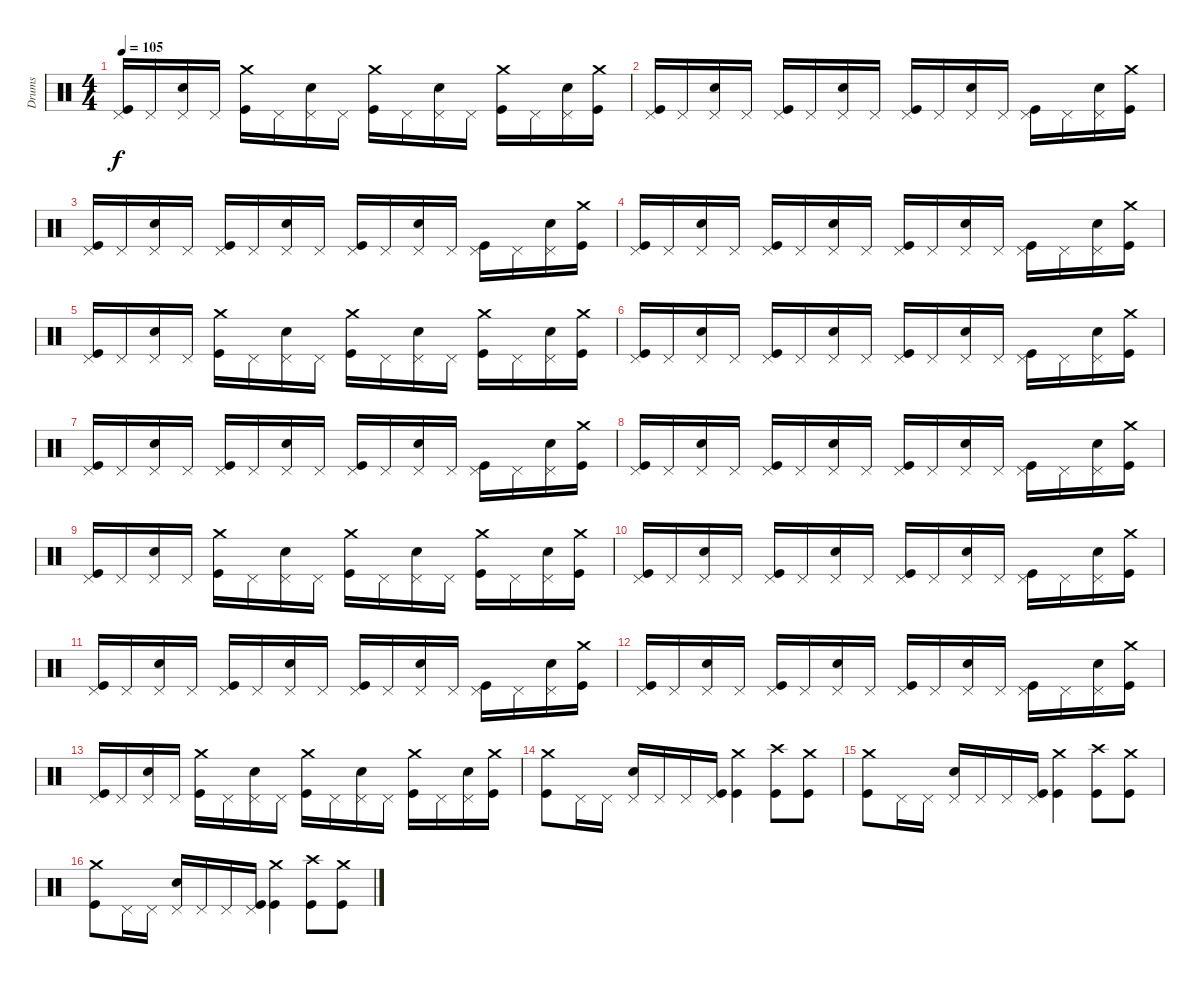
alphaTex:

\track ("Drums" "Drums") {instrument percussion}
\staff {score}
\articulation defaults
\ts (4 4)
\tempo 105
\clef neutral
\ks c
("Kick (hit)" "Pedal Hi-Hat (hit)").16{dy f} "Pedal Hi-Hat (hit)".16 ("Snare (hit) 2" "Pedal Hi-Hat (hit)").16 "Pedal Hi-Hat (hit)".16 ("Kick (hit)" "Crash medium (hit)").16 "Pedal Hi-Hat (hit)".16 ("Snare (hit) 2" "Pedal Hi-Hat (hit)").16 "Pedal Hi-Hat (hit)".16 ("Kick (hit)" "Crash medium (hit)").16 "Pedal Hi-Hat (hit)".16 ("Snare (hit) 2" "Pedal Hi-Hat (hit)").16 "Pedal Hi-Hat (hit)".16 ("Kick (hit)" "Crash medium (hit)").16 "Pedal Hi-Hat (hit)".16 ("Snare (hit) 2" "Pedal Hi-Hat (hit)").16 ("Kick (hit)" "Crash medium (hit)").16 |
("Kick (hit)" "Pedal Hi-Hat (hit)").16 "Pedal Hi-Hat (hit)".16 ("Snare (hit) 2" "Pedal Hi-Hat (hit)").16 "Pedal Hi-Hat (hit)".16 ("Kick (hit)" "Pedal Hi-Hat (hit)").16 "Pedal Hi-Hat (hit)".16 ("Snare (hit) 2" "Pedal Hi-Hat (hit)").16 "Pedal Hi-Hat (hit)".16 ("Kick (hit)" "Pedal Hi-Hat (hit)").16 "Pedal Hi-Hat (hit)".16 ("Snare (hit) 2" "Pedal Hi-Hat (hit)").16 "Pedal Hi-Hat (hit)".16 ("Kick (hit)" "Pedal Hi-Hat (hit)").16 "Pedal Hi-Hat (hit)".16 ("Snare (hit) 2" "Pedal Hi-Hat (hit)").16 ("Kick (hit)" "Crash medium (hit)").16 |
("Kick (hit)" "Pedal Hi-Hat (hit)").16 "Pedal Hi-Hat (hit)".16 ("Snare (hit) 2" "Pedal Hi-Hat (hit)").16 "Pedal Hi-Hat (hit)".16 ("Kick (hit)" "Pedal Hi-Hat (hit)").16 "Pedal Hi-Hat (hit)".16 ("Snare (hit) 2" "Pedal Hi-Hat (hit)").16 "Pedal Hi-Hat (hit)".16 ("Kick (hit)" "Pedal Hi-Hat (hit)").16 "Pedal Hi-Hat (hit)".16 ("Snare (hit) 2" "Pedal Hi-Hat (hit)").16 "Pedal Hi-Hat (hit)".16 ("Kick (hit)" "Pedal Hi-Hat (hit)").16 "Pedal Hi-Hat (hit)".16 ("Snare (hit) 2" "Pedal Hi-Hat (hit)").16 ("Kick (hit)" "Crash medium (hit)").16 |
("Kick (hit)" "Pedal Hi-Hat (hit)").16 "Pedal Hi-Hat (hit)".16 ("Snare (hit) 2" "Pedal Hi-Hat (hit)").16 "Pedal Hi-Hat (hit)".16 ("Kick (hit)" "Pedal Hi-Hat (hit)").16 "Pedal Hi-Hat (hit)".16 ("Snare (hit) 2" "Pedal Hi-Hat (hit)").16 "Pedal Hi-Hat (hit)".16 ("Kick (hit)" "Pedal Hi-Hat (hit)").16 "Pedal Hi-Hat (hit)".16 ("Snare (hit) 2" "Pedal Hi-Hat (hit)").16 "Pedal Hi-Hat (hit)".16 ("Kick (hit)" "Pedal Hi-Hat (hit)").16 "Pedal Hi-Hat (hit)".16 ("Snare (hit) 2" "Pedal Hi-Hat (hit)").16 ("Kick (hit)" "Crash medium (hit)").16 |
("Kick (hit)" "Pedal Hi-Hat (hit)").16 "Pedal Hi-Hat (hit)".16 ("Snare (hit) 2" "Pedal Hi-Hat (hit)").16 "Pedal Hi-Hat (hit)".16 ("Kick (hit)" "Crash medium (hit)").16 "Pedal Hi-Hat (hit)".16 ("Snare (hit) 2" "Pedal Hi-Hat (hit)").16 "Pedal Hi-Hat (hit)".16 ("Kick (hit)" "Crash medium (hit)").16 "Pedal Hi-Hat (hit)".16 ("Snare (hit) 2" "Pedal Hi-Hat (hit)").16 "Pedal Hi-Hat (hit)".16 ("Kick (hit)" "Crash medium (hit)").16 "Pedal Hi-Hat (hit)".16 ("Snare (hit) 2" "Pedal Hi-Hat (hit)").16 ("Kick (hit)" "Crash medium (hit)").16 |
("Kick (hit)" "Pedal Hi-Hat (hit)").16 "Pedal Hi-Hat (hit)".16 ("Snare (hit) 2" "Pedal Hi-Hat (hit)").16 "Pedal Hi-Hat (hit)".16 ("Kick (hit)" "Pedal Hi-Hat (hit)").16 "Pedal Hi-Hat (hit)".16 ("Snare (hit) 2" "Pedal Hi-Hat (hit)").16 "Pedal Hi-Hat (hit)".16 ("Kick (hit)" "Pedal Hi-Hat (hit)").16 "Pedal Hi-Hat (hit)".16 ("Snare (hit) 2" "Pedal Hi-Hat (hit)").16 "Pedal Hi-Hat (hit)".16 ("Kick (hit)" "Pedal Hi-Hat (hit)").16 "Pedal Hi-Hat (hit)".16 ("Snare (hit) 2" "Pedal Hi-Hat (hit)").16 ("Kick (hit)" "Crash medium (hit)").16 |
("Kick (hit)" "Pedal Hi-Hat (hit)").16 "Pedal Hi-Hat (hit)".16 ("Snare (hit) 2" "Pedal Hi-Hat (hit)").16 "Pedal Hi-Hat (hit)".16 ("Kick (hit)" "Pedal Hi-Hat (hit)").16 "Pedal Hi-Hat (hit)".16 ("Snare (hit) 2" "Pedal Hi-Hat (hit)").16 "Pedal Hi-Hat (hit)".16 ("Kick (hit)" "Pedal Hi-Hat (hit)").16 "Pedal Hi-Hat (hit)".16 ("Snare (hit) 2" "Pedal Hi-Hat (hit)").16 "Pedal Hi-Hat (hit)".16 ("Kick (hit)" "Pedal Hi-Hat (hit)").16 "Pedal Hi-Hat (hit)".16 ("Snare (hit) 2" "Pedal Hi-Hat (hit)").16 ("Kick (hit)" "Crash medium (hit)").16 |
("Kick (hit)" "Pedal Hi-Hat (hit)").16 "Pedal Hi-Hat (hit)".16 ("Snare (hit) 2" "Pedal Hi-Hat (hit)").16 "Pedal Hi-Hat (hit)".16 ("Kick (hit)" "Pedal Hi-Hat (hit)").16 "Pedal Hi-Hat (hit)".16 ("Snare (hit) 2" "Pedal Hi-Hat (hit)").16 "Pedal Hi-Hat (hit)".16 ("Kick (hit)" "Pedal Hi-Hat (hit)").16 "Pedal Hi-Hat (hit)".16 ("Snare (hit) 2" "Pedal Hi-Hat (hit)").16 "Pedal Hi-Hat (hit)".16 ("Kick (hit)" "Pedal Hi-Hat (hit)").16 "Pedal Hi-Hat (hit)".16 ("Snare (hit) 2" "Pedal Hi-Hat (hit)").16 ("Kick (hit)" "Crash medium (hit)").16 |
("Kick (hit)" "Pedal Hi-Hat (hit)").16 "Pedal Hi-Hat (hit)".16 ("Snare (hit) 2" "Pedal Hi-Hat (hit)").16 "Pedal Hi-Hat (hit)".16 ("Kick (hit)" "Crash medium (hit)").16 "Pedal Hi-Hat (hit)".16 ("Snare (hit) 2" "Pedal Hi-Hat (hit)").16 "Pedal Hi-Hat (hit)".16 ("Kick (hit)" "Crash medium (hit)").16 "Pedal Hi-Hat (hit)".16 ("Snare (hit) 2" "Pedal Hi-Hat (hit)").16 "Pedal Hi-Hat (hit)".16 ("Kick (hit)" "Crash medium (hit)").16 "Pedal Hi-Hat (hit)".16 ("Snare (hit) 2" "Pedal Hi-Hat (hit)").16 ("Kick (hit)" "Crash medium (hit)").16 |
("Kick (hit)" "Pedal Hi-Hat (hit)").16 "Pedal Hi-Hat (hit)".16 ("Snare (hit) 2" "Pedal Hi-Hat (hit)").16 "Pedal Hi-Hat (hit)".16 ("Kick (hit)" "Pedal Hi-Hat (hit)").16 "Pedal Hi-Hat (hit)".16 ("Snare (hit) 2" "Pedal Hi-Hat (hit)").16 "Pedal Hi-Hat (hit)".16 ("Kick (hit)" "Pedal Hi-Hat (hit)").16 "Pedal Hi-Hat (hit)".16 ("Snare (hit) 2" "Pedal Hi-Hat (hit)").16 "Pedal Hi-Hat (hit)".16 ("Kick (hit)" "Pedal Hi-Hat (hit)").16 "Pedal Hi-Hat (hit)".16 ("Snare (hit) 2" "Pedal Hi-Hat (hit)").16 ("Kick (hit)" "Crash medium (hit)").16 |
("Kick (hit)" "Pedal Hi-Hat (hit)").16 "Pedal Hi-Hat (hit)".16 ("Snare (hit) 2" "Pedal Hi-Hat (hit)").16 "Pedal Hi-Hat (hit)".16 ("Kick (hit)" "Pedal Hi-Hat (hit)").16 "Pedal Hi-Hat (hit)".16 ("Snare (hit) 2" "Pedal Hi-Hat (hit)").16 "Pedal Hi-Hat (hit)".16 ("Kick (hit)" "Pedal Hi-Hat (hit)").16 "Pedal Hi-Hat (hit)".16 ("Snare (hit) 2" "Pedal Hi-Hat (hit)").16 "Pedal Hi-Hat (hit)".16 ("Kick (hit)" "Pedal Hi-Hat (hit)").16 "Pedal Hi-Hat (hit)".16 ("Snare (hit) 2" "Pedal Hi-Hat (hit)").16 ("Kick (hit)" "Crash medium (hit)").16 |
("Kick (hit)" "Pedal Hi-Hat (hit)").16 "Pedal Hi-Hat (hit)".16 ("Snare (hit) 2" "Pedal Hi-Hat (hit)").16 "Pedal Hi-Hat (hit)".16 ("Kick (hit)" "Pedal Hi-Hat (hit)").16 "Pedal Hi-Hat (hit)".16 ("Snare (hit) 2" "Pedal Hi-Hat (hit)").16 "Pedal Hi-Hat (hit)".16 ("Kick (hit)" "Pedal Hi-Hat (hit)").16 "Pedal Hi-Hat (hit)".16 ("Snare (hit) 2" "Pedal Hi-Hat (hit)").16 "Pedal Hi-Hat (hit)".16 ("Kick (hit)" "Pedal Hi-Hat (hit)").16 "Pedal Hi-Hat (hit)".16 ("Snare (hit) 2" "Pedal Hi-Hat (hit)").16 ("Kick (hit)" "Crash medium (hit)").16 |
("Kick (hit)" "Pedal Hi-Hat (hit)").16 "Pedal Hi-Hat (hit)".16 ("Snare (hit) 2" "Pedal Hi-Hat (hit)").16 "Pedal Hi-Hat (hit)".16 ("Kick (hit)" "Crash medium (hit)").16 "Pedal Hi-Hat (hit)".16 ("Snare (hit) 2" "Pedal Hi-Hat (hit)").16 "Pedal Hi-Hat (hit)".16 ("Kick (hit)" "Crash medium (hit)").16 "Pedal Hi-Hat (hit)".16 ("Snare (hit) 2" "Pedal Hi-Hat (hit)").16 "Pedal Hi-Hat (hit)".16 ("Kick (hit)" "Crash medium (hit)").16 "Pedal Hi-Hat (hit)".16 ("Snare (hit) 2" "Pedal Hi-Hat (hit)").16 ("Kick (hit)" "Crash medium (hit)").16 |
("Kick (hit)" "Crash medium (hit)").8 "Pedal Hi-Hat (hit)".16 "Pedal Hi-Hat (hit)".16 ("Snare (hit) 2" "Pedal Hi-Hat (hit)").16 "Pedal Hi-Hat (hit)".16 "Pedal Hi-Hat (hit)".16 ("Kick (hit)" "Pedal Hi-Hat (hit)").16 ("Kick (hit)" "Crash medium (hit)").4 ("Kick (hit)" "Crash high (hit)").8 ("Kick (hit)" "Crash medium (hit)").8 |
("Kick (hit)" "Crash medium (hit)").8 "Pedal Hi-Hat (hit)".16 "Pedal Hi-Hat (hit)".16 ("Snare (hit) 2" "Pedal Hi-Hat (hit)").16 "Pedal Hi-Hat (hit)".16 "Pedal Hi-Hat (hit)".16 ("Kick (hit)" "Pedal Hi-Hat (hit)").16 ("Kick (hit)" "Crash medium (hit)").4 ("Kick (hit)" "Crash high (hit)").8 ("Kick (hit)" "Crash medium (hit)").8 |
("Kick (hit)" "Crash medium (hit)").8 "Pedal Hi-Hat (hit)".16 "Pedal Hi-Hat (hit)".16 ("Snare (hit) 2" "Pedal Hi-Hat (hit)").16 "Pedal Hi-Hat (hit)".16 "Pedal Hi-Hat (hit)".16 ("Kick (hit)" "Pedal Hi-Hat (hit)").16 ("Kick (hit)" "Crash medium (hit)").4 ("Kick (hit)" "Crash high (hit)").8 ("Kick (hit)" "Crash medium (hit)").8
